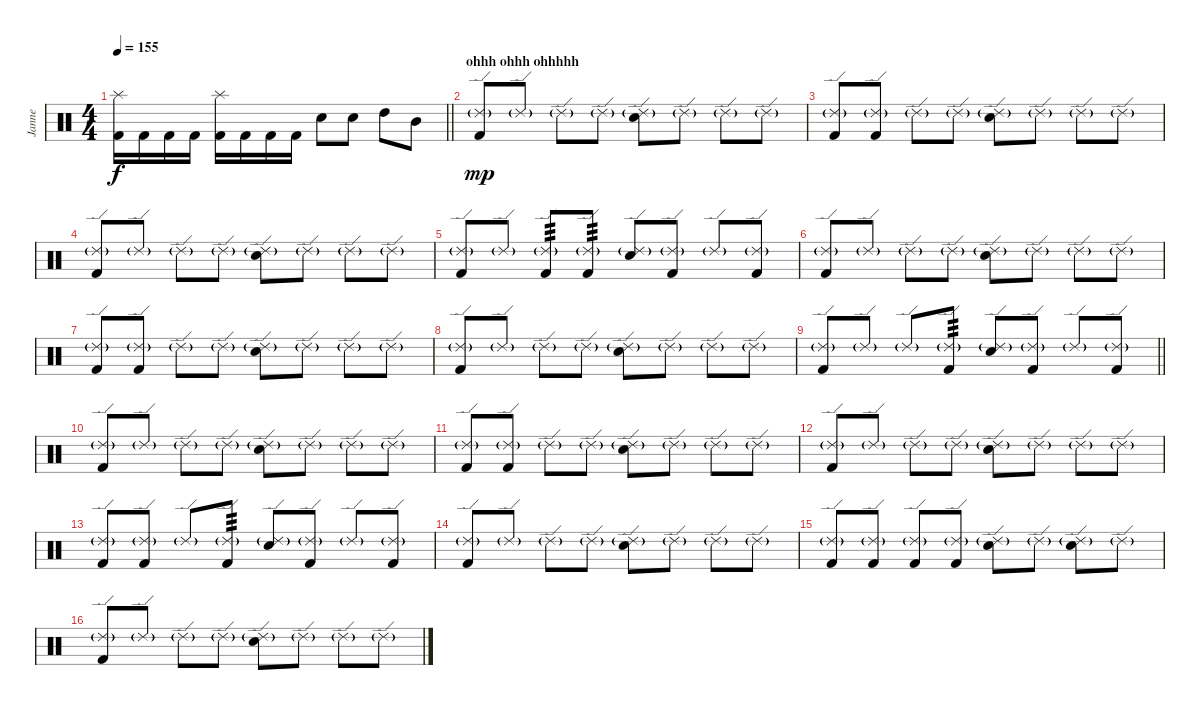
\track ("Janne" "Janne") {instrument percussion}
\staff {score}
\articulation defaults
\ts (4 4)
\tempo 155
\clef neutral
\barLineRight lightlight
\ks c
("Kick (hit) 2" "Splash (hit)").16{dy f} "Kick (hit) 2".16 "Kick (hit) 2".16 "Kick (hit) 2".16 ("Kick (hit) 2" "Splash (hit)").16 "Kick (hit) 2".16 "Kick (hit) 2".16 "Kick (hit) 2".16 "Snare (hit) 2".8 "Snare (hit) 2".8 "High Tom (hit)".8 "Mid Tom (hit)".8 |
\section ("" "ohhh ohhh ohhhhh")
("Kick (hit) 2" "Ride (edge) 2"{g}).8{dy mp} "Ride (edge) 2"{g}.8 "Ride (edge) 2"{g}.8 "Ride (edge) 2"{g}.8 ("Snare (hit) 2" "Ride (edge) 2"{g}).8 "Ride (edge) 2"{g}.8 "Ride (edge) 2"{g}.8 "Ride (edge) 2"{g}.8 |
("Kick (hit) 2" "Ride (edge) 2"{g}).8 ("Kick (hit) 2" "Ride (edge) 2"{g}).8 "Ride (edge) 2"{g}.8 "Ride (edge) 2"{g}.8 ("Snare (hit) 2" "Ride (edge) 2"{g}).8 "Ride (edge) 2"{g}.8 "Ride (edge) 2"{g}.8 "Ride (edge) 2"{g}.8 |
("Kick (hit) 2" "Ride (edge) 2"{g}).8 "Ride (edge) 2"{g}.8 "Ride (edge) 2"{g}.8 "Ride (edge) 2"{g}.8 ("Snare (hit) 2" "Ride (edge) 2"{g}).8 "Ride (edge) 2"{g}.8 "Ride (edge) 2"{g}.8 "Ride (edge) 2"{g}.8 |
("Kick (hit) 2" "Ride (edge) 2"{g}).8 "Ride (edge) 2"{g}.8 ("Kick (hit) 2" "Ride (edge) 2"{g}).8{tp 3} ("Kick (hit) 2" "Ride (edge) 2"{g}).8{tp 3} ("Snare (hit) 2" "Ride (edge) 2"{g}).8 ("Kick (hit) 2" "Ride (edge) 2"{g}).8 "Ride (edge) 2"{g}.8 ("Kick (hit) 2" "Ride (edge) 2"{g}).8 |
("Kick (hit) 2" "Ride (edge) 2"{g}).8 "Ride (edge) 2"{g}.8 "Ride (edge) 2"{g}.8 "Ride (edge) 2"{g}.8 ("Snare (hit) 2" "Ride (edge) 2"{g}).8 "Ride (edge) 2"{g}.8 "Ride (edge) 2"{g}.8 "Ride (edge) 2"{g}.8 |
("Kick (hit) 2" "Ride (edge) 2"{g}).8 ("Kick (hit) 2" "Ride (edge) 2"{g}).8 "Ride (edge) 2"{g}.8 "Ride (edge) 2"{g}.8 ("Snare (hit) 2" "Ride (edge) 2"{g}).8 "Ride (edge) 2"{g}.8 "Ride (edge) 2"{g}.8 "Ride (edge) 2"{g}.8 |
("Kick (hit) 2" "Ride (edge) 2"{g}).8 "Ride (edge) 2"{g}.8 "Ride (edge) 2"{g}.8 "Ride (edge) 2"{g}.8 ("Snare (hit) 2" "Ride (edge) 2"{g}).8 "Ride (edge) 2"{g}.8 "Ride (edge) 2"{g}.8 "Ride (edge) 2"{g}.8 |
\barLineRight lightlight
("Kick (hit) 2" "Ride (edge) 2"{g}).8 "Ride (edge) 2"{g}.8 "Ride (edge) 2"{g}.8 ("Kick (hit) 2" "Ride (edge) 2"{g}).8{tp 3} ("Snare (hit) 2" "Ride (edge) 2"{g}).8 ("Kick (hit) 2" "Ride (edge) 2"{g}).8 "Ride (edge) 2"{g}.8 ("Kick (hit) 2" "Ride (edge) 2"{g}).8 |
\section ("" "")
("Kick (hit) 2" "Ride (edge) 2"{g}).8 "Ride (edge) 2"{g}.8 "Ride (edge) 2"{g}.8 "Ride (edge) 2"{g}.8 ("Snare (hit) 2" "Ride (edge) 2"{g}).8 "Ride (edge) 2"{g}.8 "Ride (edge) 2"{g}.8 "Ride (edge) 2"{g}.8 |
("Kick (hit) 2" "Ride (edge) 2"{g}).8 ("Kick (hit) 2" "Ride (edge) 2"{g}).8 "Ride (edge) 2"{g}.8 "Ride (edge) 2"{g}.8 ("Snare (hit) 2" "Ride (edge) 2"{g}).8 "Ride (edge) 2"{g}.8 "Ride (edge) 2"{g}.8 "Ride (edge) 2"{g}.8 |
("Kick (hit) 2" "Ride (edge) 2"{g}).8 "Ride (edge) 2"{g}.8 "Ride (edge) 2"{g}.8 "Ride (edge) 2"{g}.8 ("Snare (hit) 2" "Ride (edge) 2"{g}).8 "Ride (edge) 2"{g}.8 "Ride (edge) 2"{g}.8 "Ride (edge) 2"{g}.8 |
("Kick (hit) 2" "Ride (edge) 2"{g}).8 ("Kick (hit) 2" "Ride (edge) 2"{g}).8 "Ride (edge) 2"{g}.8 ("Kick (hit) 2" "Ride (edge) 2"{g}).8{tp 3} ("Snare (hit) 2" "Ride (edge) 2"{g}).8 ("Kick (hit) 2" "Ride (edge) 2"{g}).8 "Ride (edge) 2"{g}.8 ("Kick (hit) 2" "Ride (edge) 2"{g}).8 |
("Kick (hit) 2" "Ride (edge) 2"{g}).8 "Ride (edge) 2"{g}.8 "Ride (edge) 2"{g}.8 "Ride (edge) 2"{g}.8 ("Snare (hit) 2" "Ride (edge) 2"{g}).8 "Ride (edge) 2"{g}.8 "Ride (edge) 2"{g}.8 "Ride (edge) 2"{g}.8 |
("Kick (hit) 2" "Ride (edge) 2"{g}).8 ("Kick (hit) 2" "Ride (edge) 2"{g}).8 ("Kick (hit) 2" "Ride (edge) 2"{g}).8 ("Kick (hit) 2" "Ride (edge) 2"{g}).8 ("Snare (hit) 2" "Ride (edge) 2"{g}).8 "Ride (edge) 2"{g}.8 ("Snare (hit) 2" "Ride (edge) 2"{g}).8 "Ride (edge) 2"{g}.8 |
("Kick (hit) 2" "Ride (edge) 2"{g}).8 "Ride (edge) 2"{g}.8 "Ride (edge) 2"{g}.8 "Ride (edge) 2"{g}.8 ("Snare (hit) 2" "Ride (edge) 2"{g}).8 "Ride (edge) 2"{g}.8 "Ride (edge) 2"{g}.8 "Ride (edge) 2"{g}.8
